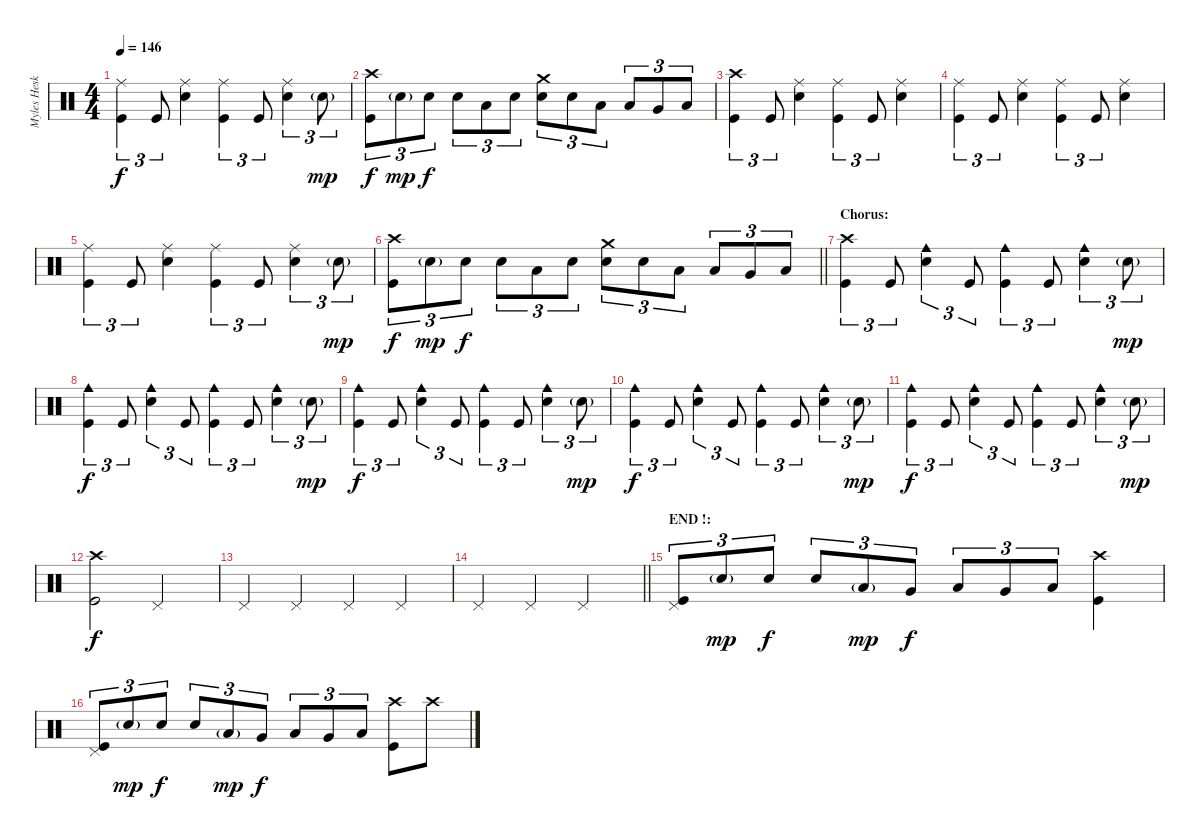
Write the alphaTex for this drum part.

\track ("Myles Heskett" "Myles Hesk") {instrument percussion}
\staff {score}
\articulation defaults
\ts (4 4)
\tempo 146
\clef neutral
\ks c
("Ride (middle)" "Kick (hit)").4{tu (3 2) dy f} "Kick (hit)".8{tu (3 2)} ("Ride (middle)" "Electric Snare (hit)").4 ("Ride (middle)" "Kick (hit)").4{tu (3 2)} "Kick (hit)".8{tu (3 2)} ("Ride (middle)" "Electric Snare (hit)").4{tu (3 2)} "Electric Snare (hit)"{g}.8{tu (3 2) dy mp} |
("Crash high (hit)" "Kick (hit)").8{tu (3 2) dy f} "Electric Snare (hit)"{g}.8{tu (3 2) dy mp} "Electric Snare (hit)".8{tu (3 2) dy f} "Electric Snare (hit)".8{tu (3 2)} "Low Tom (hit)".8{tu (3 2)} "Electric Snare (hit)".8{tu (3 2)} ("Crash medium (hit)" "Electric Snare (hit)").8{tu (3 2)} "Electric Snare (hit)".8{tu (3 2)} "Low Tom (hit)".8{tu (3 2)} "Low Tom (hit)".8{tu (3 2)} "Very Low Tom (hit)".8{tu (3 2)} "Low Floor Tom (hit)".8{tu (3 2)} |
("Crash high (hit)" "Kick (hit)").4{tu (3 2)} "Kick (hit)".8{tu (3 2)} ("Ride (middle)" "Electric Snare (hit)").4 ("Ride (middle)" "Kick (hit)").4{tu (3 2)} "Kick (hit)".8{tu (3 2)} ("Ride (middle)" "Electric Snare (hit)").4 |
("Ride (middle)" "Kick (hit)").4{tu (3 2)} "Kick (hit)".8{tu (3 2)} ("Ride (middle)" "Electric Snare (hit)").4 ("Ride (middle)" "Kick (hit)").4{tu (3 2)} "Kick (hit)".8{tu (3 2)} ("Ride (middle)" "Electric Snare (hit)").4 |
("Ride (middle)" "Kick (hit)").4{tu (3 2)} "Kick (hit)".8{tu (3 2)} ("Ride (middle)" "Electric Snare (hit)").4 ("Ride (middle)" "Kick (hit)").4{tu (3 2)} "Kick (hit)".8{tu (3 2)} ("Ride (middle)" "Electric Snare (hit)").4{tu (3 2)} "Electric Snare (hit)"{g}.8{tu (3 2) dy mp} |
\barLineRight lightlight
("Crash high (hit)" "Kick (hit)").8{tu (3 2) dy f} "Electric Snare (hit)"{g}.8{tu (3 2) dy mp} "Electric Snare (hit)".8{tu (3 2) dy f} "Electric Snare (hit)".8{tu (3 2)} "Low Tom (hit)".8{tu (3 2)} "Electric Snare (hit)".8{tu (3 2)} ("Crash medium (hit)" "Electric Snare (hit)").8{tu (3 2)} "Electric Snare (hit)".8{tu (3 2)} "Low Tom (hit)".8{tu (3 2)} "Low Tom (hit)".8{tu (3 2)} "Very Low Tom (hit)".8{tu (3 2)} "Low Floor Tom (hit)".8{tu (3 2)} |
\section ("" "Chorus:")
("Crash high (hit)" "Kick (hit)").4{tu (3 2)} "Kick (hit)".8{tu (3 2)} ("Cowbell medium (hit)" "Electric Snare (hit)").4{tu (3 2)} "Kick (hit)".8{tu (3 2)} ("Cowbell medium (hit)" "Kick (hit)").4{tu (3 2)} "Kick (hit)".8{tu (3 2)} ("Cowbell medium (hit)" "Electric Snare (hit)").4{tu (3 2)} "Electric Snare (hit)"{g}.8{tu (3 2) dy mp} |
("Cowbell medium (hit)" "Kick (hit)").4{tu (3 2) dy f} "Kick (hit)".8{tu (3 2)} ("Cowbell medium (hit)" "Electric Snare (hit)").4{tu (3 2)} "Kick (hit)".8{tu (3 2)} ("Cowbell medium (hit)" "Kick (hit)").4{tu (3 2)} "Kick (hit)".8{tu (3 2)} ("Cowbell medium (hit)" "Electric Snare (hit)").4{tu (3 2)} "Electric Snare (hit)"{g}.8{tu (3 2) dy mp} |
("Cowbell medium (hit)" "Kick (hit)").4{tu (3 2) dy f} "Kick (hit)".8{tu (3 2)} ("Cowbell medium (hit)" "Electric Snare (hit)").4{tu (3 2)} "Kick (hit)".8{tu (3 2)} ("Cowbell medium (hit)" "Kick (hit)").4{tu (3 2)} "Kick (hit)".8{tu (3 2)} ("Cowbell medium (hit)" "Electric Snare (hit)").4{tu (3 2)} "Electric Snare (hit)"{g}.8{tu (3 2) dy mp} |
("Cowbell medium (hit)" "Kick (hit)").4{tu (3 2) dy f} "Kick (hit)".8{tu (3 2)} ("Cowbell medium (hit)" "Electric Snare (hit)").4{tu (3 2)} "Kick (hit)".8{tu (3 2)} ("Cowbell medium (hit)" "Kick (hit)").4{tu (3 2)} "Kick (hit)".8{tu (3 2)} ("Cowbell medium (hit)" "Electric Snare (hit)").4{tu (3 2)} "Electric Snare (hit)"{g}.8{tu (3 2) dy mp} |
("Cowbell medium (hit)" "Kick (hit)").4{tu (3 2) dy f} "Kick (hit)".8{tu (3 2)} ("Cowbell medium (hit)" "Electric Snare (hit)").4{tu (3 2)} "Kick (hit)".8{tu (3 2)} ("Cowbell medium (hit)" "Kick (hit)").4{tu (3 2)} "Kick (hit)".8{tu (3 2)} ("Cowbell medium (hit)" "Electric Snare (hit)").4{tu (3 2)} "Electric Snare (hit)"{g}.8{tu (3 2) dy mp} |
("Crash high (hit)" "Kick (hit)").2{dy f} "Pedal Hi-Hat (hit)".2 |
"Pedal Hi-Hat (hit)".4 "Pedal Hi-Hat (hit)".4 "Pedal Hi-Hat (hit)".4 "Pedal Hi-Hat (hit)".4 |
\barLineRight lightlight "Pedal Hi-Hat (hit)".4 "Pedal Hi-Hat (hit)".4 "Pedal Hi-Hat (hit)".2
|
\section ("" "END !:")
("Pedal Hi-Hat (hit)" "Kick (hit)").8{tu (3 2)} "Electric Snare (hit)"{g}.8{tu (3 2) dy mp} "Electric Snare (hit)".8{tu (3 2) dy f} "Electric Snare (hit)".8{tu (3 2)} "Low Tom (hit)"{g}.8{tu (3 2) dy mp} "Very Low Tom (hit)".8{tu (3 2) dy f} "Low Tom (hit)".8{tu (3 2)} "Very Low Tom (hit)".8{tu (3 2)} "Low Floor Tom (hit)".8{tu (3 2)} ("Crash high (hit)" "Kick (hit)").4 |
("Pedal Hi-Hat (hit)" "Kick (hit)").8{tu (3 2)} "Electric Snare (hit)"{g}.8{tu (3 2) dy mp} "Electric Snare (hit)".8{tu (3 2) dy f} "Electric Snare (hit)".8{tu (3 2)} "Low Tom (hit)"{g}.8{tu (3 2) dy mp} "Very Low Tom (hit)".8{tu (3 2) dy f} "Low Tom (hit)".8{tu (3 2)} "Very Low Tom (hit)".8{tu (3 2)} "Low Floor Tom (hit)".8{tu (3 2)} ("Crash high (hit)" "Kick (hit)").8 "Crash high (hit)".8{volume 4}
